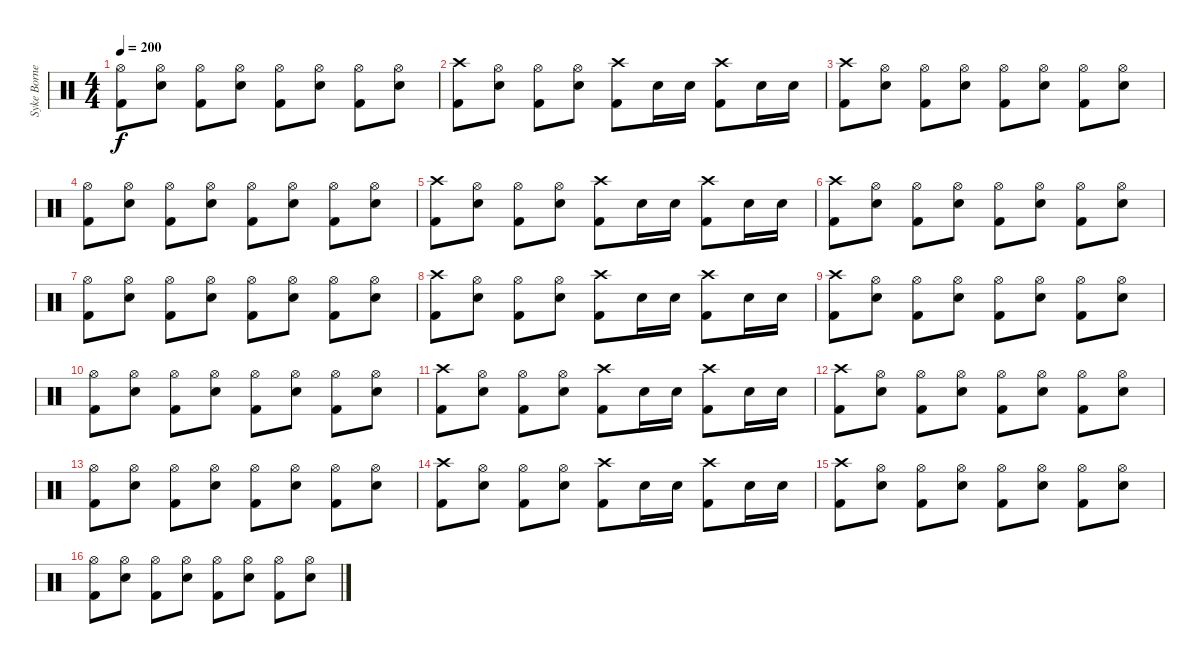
\track ("Syke Bornetto (Drums)" "Syke Borne") {instrument percussion}
\staff {score}
\articulation defaults
\ts (4 4)
\tempo 200
\clef neutral
\ks c
("Hi-Hat (open)" "Kick (hit) 2").8{dy f} ("Hi-Hat (open)" "Electric Snare (hit)").8 ("Hi-Hat (open)" "Kick (hit) 2").8 ("Hi-Hat (open)" "Electric Snare (hit)").8 ("Hi-Hat (open)" "Kick (hit) 2").8 ("Hi-Hat (open)" "Electric Snare (hit)").8 ("Hi-Hat (open)" "Kick (hit) 2").8 ("Hi-Hat (open)" "Electric Snare (hit)").8 |
("Crash high (hit)" "Kick (hit) 2").8 ("Hi-Hat (open)" "Electric Snare (hit)").8 ("Hi-Hat (open)" "Kick (hit) 2").8 ("Hi-Hat (open)" "Electric Snare (hit)").8 ("Crash high (hit)" "Kick (hit) 2").8 "Electric Snare (hit)".16 "Electric Snare (hit)".16 ("Crash high (hit)" "Kick (hit) 2").8 "Electric Snare (hit)".16 "Electric Snare (hit)".16 |
("Crash high (hit)" "Kick (hit) 2").8 ("Hi-Hat (open)" "Electric Snare (hit)").8 ("Hi-Hat (open)" "Kick (hit) 2").8 ("Hi-Hat (open)" "Electric Snare (hit)").8 ("Hi-Hat (open)" "Kick (hit) 2").8 ("Hi-Hat (open)" "Electric Snare (hit)").8 ("Hi-Hat (open)" "Kick (hit) 2").8 ("Hi-Hat (open)" "Electric Snare (hit)").8 |
("Hi-Hat (open)" "Kick (hit) 2").8 ("Hi-Hat (open)" "Electric Snare (hit)").8 ("Hi-Hat (open)" "Kick (hit) 2").8 ("Hi-Hat (open)" "Electric Snare (hit)").8 ("Hi-Hat (open)" "Kick (hit) 2").8 ("Hi-Hat (open)" "Electric Snare (hit)").8 ("Hi-Hat (open)" "Kick (hit) 2").8 ("Hi-Hat (open)" "Electric Snare (hit)").8 |
("Crash high (hit)" "Kick (hit) 2").8 ("Hi-Hat (open)" "Electric Snare (hit)").8 ("Hi-Hat (open)" "Kick (hit) 2").8 ("Hi-Hat (open)" "Electric Snare (hit)").8 ("Crash high (hit)" "Kick (hit) 2").8 "Electric Snare (hit)".16 "Electric Snare (hit)".16 ("Crash high (hit)" "Kick (hit) 2").8 "Electric Snare (hit)".16 "Electric Snare (hit)".16 |
("Crash high (hit)" "Kick (hit) 2").8 ("Hi-Hat (open)" "Electric Snare (hit)").8 ("Hi-Hat (open)" "Kick (hit) 2").8 ("Hi-Hat (open)" "Electric Snare (hit)").8 ("Hi-Hat (open)" "Kick (hit) 2").8 ("Hi-Hat (open)" "Electric Snare (hit)").8 ("Hi-Hat (open)" "Kick (hit) 2").8 ("Hi-Hat (open)" "Electric Snare (hit)").8 |
("Hi-Hat (open)" "Kick (hit) 2").8 ("Hi-Hat (open)" "Electric Snare (hit)").8 ("Hi-Hat (open)" "Kick (hit) 2").8 ("Hi-Hat (open)" "Electric Snare (hit)").8 ("Hi-Hat (open)" "Kick (hit) 2").8 ("Hi-Hat (open)" "Electric Snare (hit)").8 ("Hi-Hat (open)" "Kick (hit) 2").8 ("Hi-Hat (open)" "Electric Snare (hit)").8 |
("Crash high (hit)" "Kick (hit) 2").8 ("Hi-Hat (open)" "Electric Snare (hit)").8 ("Hi-Hat (open)" "Kick (hit) 2").8 ("Hi-Hat (open)" "Electric Snare (hit)").8 ("Crash high (hit)" "Kick (hit) 2").8 "Electric Snare (hit)".16 "Electric Snare (hit)".16 ("Crash high (hit)" "Kick (hit) 2").8 "Electric Snare (hit)".16 "Electric Snare (hit)".16 |
("Crash high (hit)" "Kick (hit) 2").8 ("Hi-Hat (open)" "Electric Snare (hit)").8 ("Hi-Hat (open)" "Kick (hit) 2").8 ("Hi-Hat (open)" "Electric Snare (hit)").8 ("Hi-Hat (open)" "Kick (hit) 2").8 ("Hi-Hat (open)" "Electric Snare (hit)").8 ("Hi-Hat (open)" "Kick (hit) 2").8 ("Hi-Hat (open)" "Electric Snare (hit)").8 |
("Hi-Hat (open)" "Kick (hit) 2").8 ("Hi-Hat (open)" "Electric Snare (hit)").8 ("Hi-Hat (open)" "Kick (hit) 2").8 ("Hi-Hat (open)" "Electric Snare (hit)").8 ("Hi-Hat (open)" "Kick (hit) 2").8 ("Hi-Hat (open)" "Electric Snare (hit)").8 ("Hi-Hat (open)" "Kick (hit) 2").8 ("Hi-Hat (open)" "Electric Snare (hit)").8 |
("Crash high (hit)" "Kick (hit) 2").8 ("Hi-Hat (open)" "Electric Snare (hit)").8 ("Hi-Hat (open)" "Kick (hit) 2").8 ("Hi-Hat (open)" "Electric Snare (hit)").8 ("Crash high (hit)" "Kick (hit) 2").8 "Electric Snare (hit)".16 "Electric Snare (hit)".16 ("Crash high (hit)" "Kick (hit) 2").8 "Electric Snare (hit)".16 "Electric Snare (hit)".16 |
("Crash high (hit)" "Kick (hit) 2").8 ("Hi-Hat (open)" "Electric Snare (hit)").8 ("Hi-Hat (open)" "Kick (hit) 2").8 ("Hi-Hat (open)" "Electric Snare (hit)").8 ("Hi-Hat (open)" "Kick (hit) 2").8 ("Hi-Hat (open)" "Electric Snare (hit)").8 ("Hi-Hat (open)" "Kick (hit) 2").8 ("Hi-Hat (open)" "Electric Snare (hit)").8 |
("Hi-Hat (open)" "Kick (hit) 2").8 ("Hi-Hat (open)" "Electric Snare (hit)").8 ("Hi-Hat (open)" "Kick (hit) 2").8 ("Hi-Hat (open)" "Electric Snare (hit)").8 ("Hi-Hat (open)" "Kick (hit) 2").8 ("Hi-Hat (open)" "Electric Snare (hit)").8 ("Hi-Hat (open)" "Kick (hit) 2").8 ("Hi-Hat (open)" "Electric Snare (hit)").8 |
("Crash high (hit)" "Kick (hit) 2").8 ("Hi-Hat (open)" "Electric Snare (hit)").8 ("Hi-Hat (open)" "Kick (hit) 2").8 ("Hi-Hat (open)" "Electric Snare (hit)").8 ("Crash high (hit)" "Kick (hit) 2").8 "Electric Snare (hit)".16 "Electric Snare (hit)".16 ("Crash high (hit)" "Kick (hit) 2").8 "Electric Snare (hit)".16 "Electric Snare (hit)".16 |
("Crash high (hit)" "Kick (hit) 2").8 ("Hi-Hat (open)" "Electric Snare (hit)").8 ("Hi-Hat (open)" "Kick (hit) 2").8 ("Hi-Hat (open)" "Electric Snare (hit)").8 ("Hi-Hat (open)" "Kick (hit) 2").8 ("Hi-Hat (open)" "Electric Snare (hit)").8 ("Hi-Hat (open)" "Kick (hit) 2").8 ("Hi-Hat (open)" "Electric Snare (hit)").8 |
("Hi-Hat (open)" "Kick (hit) 2").8 ("Hi-Hat (open)" "Electric Snare (hit)").8 ("Hi-Hat (open)" "Kick (hit) 2").8 ("Hi-Hat (open)" "Electric Snare (hit)").8 ("Hi-Hat (open)" "Kick (hit) 2").8 ("Hi-Hat (open)" "Electric Snare (hit)").8 ("Hi-Hat (open)" "Kick (hit) 2").8 ("Hi-Hat (open)" "Electric Snare (hit)").8
